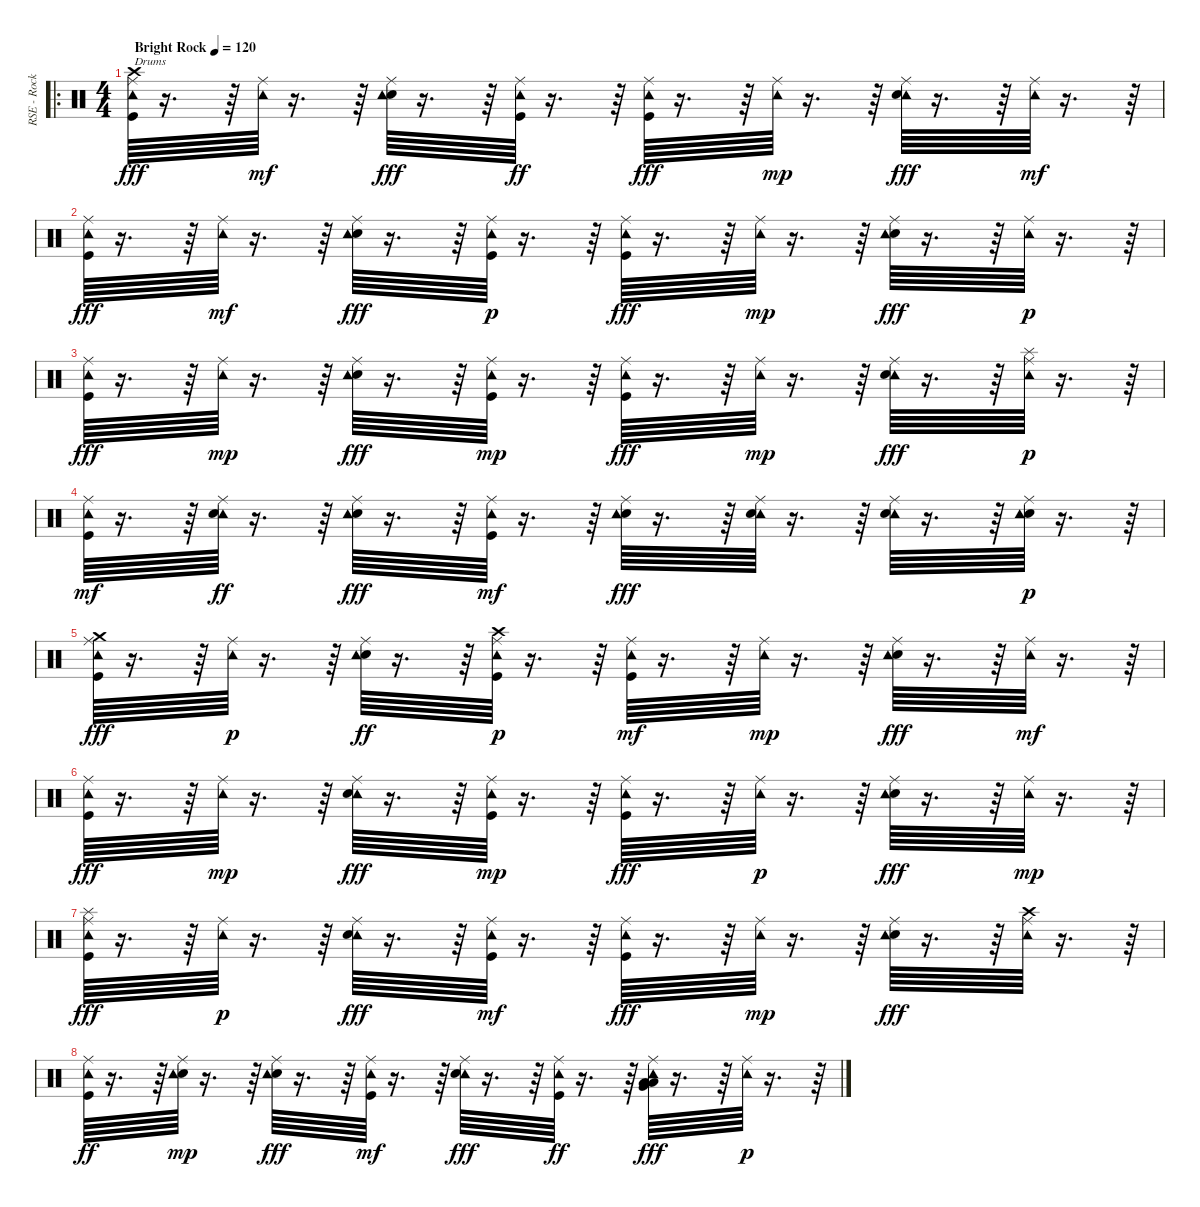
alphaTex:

\track ("RSE - Rock Drum Kit" "RSE - Rock") {instrument percussion}
\staff {score}
\articulation defaults
\ro
\ts (4 4)
\tempo (120 "Bright Rock")
\clef neutral
\ks c
("Crash high (hit)" "Ride (middle)" "Tambourine (hit)" "Kick (hit)").64{txt "Drums" dy fff} r.16{d} r.64 ("Tambourine (hit)" "Ride (middle)").64{dy mf} r.16{d} r.64 ("Metronome (bell)" "Ride (middle)" "Tambourine (hit)").64{dy fff} r.16{d} r.64 ("Tambourine (hit)" "Ride (middle)" "Kick (hit)").64{dy ff} r.16{d} r.64 ("Tambourine (hit)" "Ride (middle)" "Kick (hit)").64{dy fff} r.16{d} r.64 ("Tambourine (hit)" "Ride (middle)").64{dy mp} r.16{d} r.64 ("Ride (middle)" "Tambourine (hit)" "Metronome (bell)").64{dy fff} r.16{d} r.64 ("Tambourine (hit)" "Ride (middle)").64{dy mf} r.16{d} r.64 |
("Tambourine (hit)" "Kick (hit)" "Ride (middle)").64{dy fff} r.16{d} r.64 ("Tambourine (hit)" "Ride (middle)").64{dy mf} r.16{d} r.64 ("Metronome (bell)" "Ride (middle)" "Tambourine (hit)").64{dy fff} r.16{d} r.64 ("Ride (middle)" "Kick (hit)" "Tambourine (hit)").64{dy p} r.16{d} r.64 ("Tambourine (hit)" "Ride (middle)" "Kick (hit)").64{dy fff} r.16{d} r.64 ("Tambourine (hit)" "Ride (middle)").64{dy mp} r.16{d} r.64 ("Metronome (bell)" "Ride (middle)" "Tambourine (hit)").64{dy fff} r.16{d} r.64 ("Tambourine (hit)" "Ride (middle)").64{dy p} r.16{d} r.64 |
("Tambourine (hit)" "Ride (middle)" "Kick (hit)").64{dy fff} r.16{d} r.64 ("Tambourine (hit)" "Ride (middle)").64{dy mp} r.16{d} r.64 ("Metronome (bell)" "Tambourine (hit)" "Ride (middle)").64{dy fff} r.16{d} r.64 ("Kick (hit)" "Tambourine (hit)" "Ride (middle)").64{dy mp} r.16{d} r.64 ("Tambourine (hit)" "Kick (hit)" "Ride (middle)").64{dy fff} r.16{d} r.64 ("Tambourine (hit)" "Ride (middle)").64{dy mp} r.16{d} r.64 ("Ride (middle)" "Tambourine (hit)" "Metronome (bell)").64{dy fff} r.16{d} r.64 ("Ride (middle)" "Splash (hit)" "Tambourine (hit)").64{dy p} r.16{d} r.64 |
("Kick (hit)" "Tambourine (hit)" "Ride (middle)").64{dy mf} r.16{d} r.64 ("Tambourine (hit)" "Metronome (bell)" "Ride (middle)").64{dy ff} r.16{d} r.64 ("Metronome (bell)" "Ride (middle)" "Tambourine (hit)").64{dy fff} r.16{d} r.64 ("Kick (hit)" "Tambourine (hit)" "Ride (middle)").64{dy mf} r.16{d} r.64 ("Metronome (bell)" "Tambourine (hit)" "Ride (middle)").64{dy fff} r.16{d} r.64 ("Tambourine (hit)" "Ride (middle)" "Metronome (bell)").64 r.16{d} r.64 ("Ride (middle)" "Tambourine (hit)" "Metronome (bell)").64 r.16{d} r.64 ("Metronome (bell)" "Tambourine (hit)" "Ride (middle)").64{dy p} r.16{d} r.64 |
("Tambourine (hit)" "Ride (middle)" "Crash medium (hit)" "Kick (hit)").64{dy fff} r.16{d} r.64 ("Tambourine (hit)" "Ride (middle)").64{dy p} r.16{d} r.64 ("Metronome (bell)" "Tambourine (hit)" "Ride (middle)").64{dy ff} r.16{d} r.64 ("Ride (middle)" "Crash high (hit)" "Tambourine (hit)" "Kick (hit)").64{dy p} r.16{d} r.64 ("Kick (hit)" "Tambourine (hit)" "Ride (middle)").64{dy mf} r.16{d} r.64 ("Tambourine (hit)" "Ride (middle)").64{dy mp} r.16{d} r.64 ("Ride (middle)" "Metronome (bell)" "Tambourine (hit)").64{dy fff} r.16{d} r.64 ("Tambourine (hit)" "Ride (middle)").64{dy mf} r.16{d} r.64 |
("Tambourine (hit)" "Ride (middle)" "Kick (hit)").64{dy fff} r.16{d} r.64 ("Ride (middle)" "Tambourine (hit)").64{dy mp} r.16{d} r.64 ("Ride (middle)" "Tambourine (hit)" "Metronome (bell)").64{dy fff} r.16{d} r.64 ("Tambourine (hit)" "Kick (hit)" "Ride (middle)").64{dy mp} r.16{d} r.64 ("Ride (middle)" "Tambourine (hit)" "Kick (hit)").64{dy fff} r.16{d} r.64 ("Ride (middle)" "Tambourine (hit)").64{dy p} r.16{d} r.64 ("Ride (middle)" "Metronome (bell)" "Tambourine (hit)").64{dy fff} r.16{d} r.64 ("Ride (middle)" "Tambourine (hit)").64{dy mp} r.16{d} r.64 |
("Ride (middle)" "Splash (hit)" "Tambourine (hit)" "Kick (hit)").64{dy fff} r.16{d} r.64 ("Ride (middle)" "Tambourine (hit)").64{dy p} r.16{d} r.64 ("Ride (middle)" "Tambourine (hit)" "Metronome (bell)").64{dy fff} r.16{d} r.64 ("Tambourine (hit)" "Ride (middle)" "Kick (hit)").64{dy mf} r.16{d} r.64 ("Ride (middle)" "Tambourine (hit)" "Kick (hit)").64{dy fff} r.16{d} r.64 ("Tambourine (hit)" "Ride (middle)").64{dy mp} r.16{d} r.64 ("Ride (middle)" "Metronome (bell)" "Tambourine (hit)").64{dy fff} r.16{d} r.64 ("Tambourine (hit)" "Ride (middle)" "Crash high (hit)").64 r.16{d} r.64 |
("Ride (middle)" "Tambourine (hit)" "Kick (hit)").64{dy ff} r.16{d} r.64 ("Metronome (bell)" "Ride (middle)" "Tambourine (hit)").64{dy mp} r.16{d} r.64 ("Metronome (bell)" "Tambourine (hit)" "Ride (middle)").64{dy fff} r.16{d} r.64 ("Kick (hit)" "Tambourine (hit)" "Ride (middle)").64{dy mf} r.16{d} r.64 ("Tambourine (hit)" "Metronome (bell)" "Ride (middle)").64{dy fff} r.16{d} r.64 ("Tambourine (hit)" "Kick (hit)" "Ride (middle)").64{dy ff} r.16{d} r.64 ("Tambourine (hit)" "Low Floor Tom (hit)" "Low Tom (hit)" "Very Low Tom (hit)" "Ride (middle)").64{dy fff} r.16{d} r.64 ("Ride (middle)" "Tambourine (hit)").64{dy p} r.16{d} r.64
